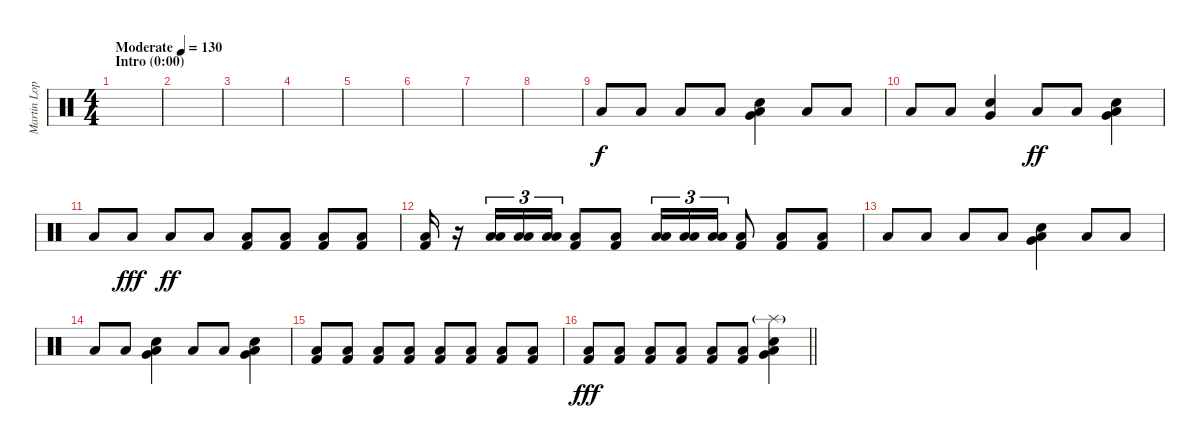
\track ("Martin Lopez" "Martin Lop") {instrument percussion}
\staff {score}
\articulation defaults
\ts (4 4)
\section ("" "Intro (0:00)")
\tempo (130 "Moderate")
\clef neutral
\ks c
|
|
|
|
|
|
|
|
"Low Floor Tom (hit)".8 "Low Floor Tom (hit)".8 "Low Floor Tom (hit)".8 "Low Floor Tom (hit)".8 ("Very Low Tom (hit)" "Snare (hit) 2" "Low Floor Tom (hit)").4 "Low Floor Tom (hit)".8 "Low Floor Tom (hit)".8 |
"Low Floor Tom (hit)".8 "Low Floor Tom (hit)".8 ("Very Low Tom (hit)" "Snare (hit) 2").4{dy f} "Low Floor Tom (hit)".8{dy ff} "Low Floor Tom (hit)".8 ("Very Low Tom (hit)" "Snare (hit) 2" "Low Floor Tom (hit)").4 |
"Low Floor Tom (hit)".8 "Low Floor Tom (hit)".8{dy fff} "Low Floor Tom (hit)".8{dy ff} "Low Floor Tom (hit)".8 ("Kick (hit) 2" "Low Floor Tom (hit)").8 ("Kick (hit) 2" "Low Floor Tom (hit)").8 ("Kick (hit) 2" "Low Floor Tom (hit)").8 ("Kick (hit) 2" "Low Floor Tom (hit)").8 |
("Kick (hit) 2" "Low Floor Tom (hit)").16 r.16 ("Low Tom (hit)" "Low Floor Tom (hit)").16{tu (3 2)} ("Low Tom (hit)" "Low Floor Tom (hit)").16{tu (3 2)} ("Low Tom (hit)" "Low Floor Tom (hit)").16{tu (3 2)} ("Kick (hit) 2" "Low Floor Tom (hit)").8 ("Kick (hit) 2" "Low Floor Tom (hit)").8 ("Low Tom (hit)" "Low Floor Tom (hit)").16{tu (3 2)} ("Low Tom (hit)" "Low Floor Tom (hit)").16{tu (3 2)} ("Low Tom (hit)" "Low Floor Tom (hit)").16{tu (3 2)} ("Kick (hit) 2" "Low Floor Tom (hit)").8 ("Kick (hit) 2" "Low Floor Tom (hit)").8 ("Kick (hit) 2" "Low Floor Tom (hit)").8 |
"Low Floor Tom (hit)".8 "Low Floor Tom (hit)".8 "Low Floor Tom (hit)".8 "Low Floor Tom (hit)".8 ("Very Low Tom (hit)" "Snare (hit) 2" "Low Floor Tom (hit)").4 "Low Floor Tom (hit)".8 "Low Floor Tom (hit)".8 |
"Low Floor Tom (hit)".8 "Low Floor Tom (hit)".8 ("Very Low Tom (hit)" "Snare (hit) 2" "Low Floor Tom (hit)").4 "Low Floor Tom (hit)".8 "Low Floor Tom (hit)".8 ("Very Low Tom (hit)" "Snare (hit) 2" "Low Floor Tom (hit)").4 |
("Kick (hit) 2" "Low Floor Tom (hit)").8 ("Kick (hit) 2" "Low Floor Tom (hit)").8 ("Kick (hit) 2" "Low Floor Tom (hit)").8 ("Kick (hit) 2" "Low Floor Tom (hit)").8 ("Kick (hit) 2" "Low Floor Tom (hit)").8 ("Kick (hit) 2" "Low Floor Tom (hit)").8 ("Kick (hit) 2" "Low Floor Tom (hit)").8 ("Kick (hit) 2" "Low Floor Tom (hit)").8 |
\barLineRight lightlight
("Kick (hit) 2" "Low Floor Tom (hit)").8{dy fff} ("Kick (hit) 2" "Low Floor Tom (hit)").8 ("Kick (hit) 2" "Low Floor Tom (hit)").8 ("Kick (hit) 2" "Low Floor Tom (hit)").8 ("Kick (hit) 2" "Low Floor Tom (hit)").8 ("Kick (hit) 2" "Low Floor Tom (hit)").8 ("Splash (hit)"{g} "Very Low Tom (hit)" "Snare (hit) 2" "Low Floor Tom (hit)").4
